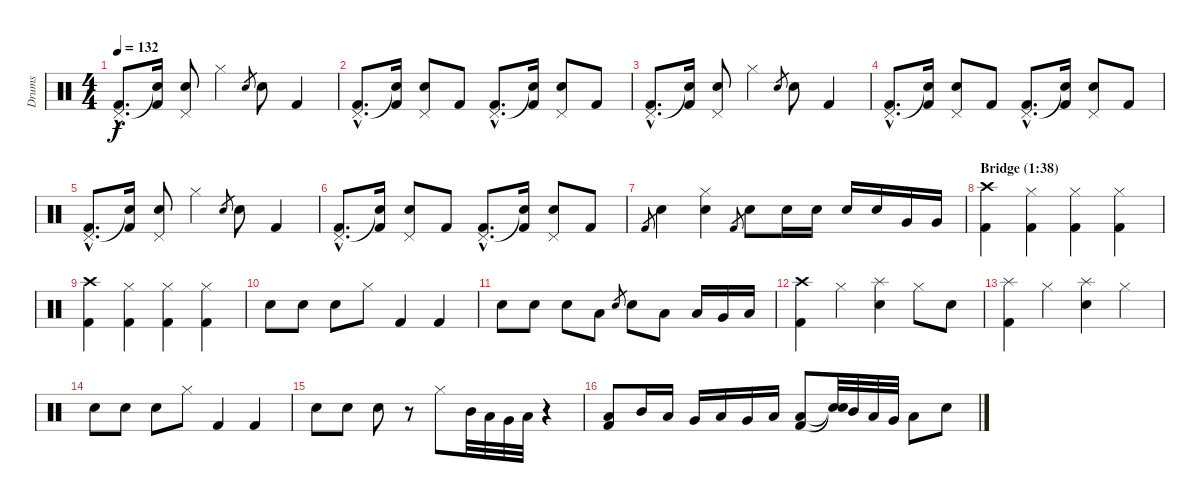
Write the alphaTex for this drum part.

\track ("Drums" "Drums") {instrument percussion}
\staff {score}
\articulation defaults
\ts (4 4)
\tempo 132
\clef neutral
\ks aminor
("Kick (hit) 2"{hac} "Pedal Hi-Hat (hit)"{hac}).8{d dy f} ("Kick (hit) 2" "Snare (hit)"{t}).16 ("Electric Snare (hit)" "Pedal Hi-Hat (hit)").8 "Hi-Hat (closed)".4 "Electric Snare (hit)".8{gr} "Electric Snare (hit)".8 "Kick (hit) 2".4 |
("Kick (hit) 2"{hac} "Pedal Hi-Hat (hit)"{hac}).8{d} ("Kick (hit) 2" "Snare (hit)"{t}).16 ("Electric Snare (hit)" "Pedal Hi-Hat (hit)").8 "Kick (hit) 2".8 ("Kick (hit) 2"{hac} "Pedal Hi-Hat (hit)"{hac}).8{d} ("Kick (hit) 2" "Snare (hit)"{t}).16 ("Electric Snare (hit)" "Pedal Hi-Hat (hit)").8 "Kick (hit) 2".8 |
("Kick (hit) 2"{hac} "Pedal Hi-Hat (hit)"{hac}).8{d} ("Kick (hit) 2" "Snare (hit)"{t}).16 ("Electric Snare (hit)" "Pedal Hi-Hat (hit)").8 "Hi-Hat (closed)".4 "Electric Snare (hit)".8{gr} "Electric Snare (hit)".8 "Kick (hit) 2".4 |
("Kick (hit) 2"{hac} "Pedal Hi-Hat (hit)"{hac}).8{d} ("Kick (hit) 2" "Snare (hit)"{t}).16 ("Electric Snare (hit)" "Pedal Hi-Hat (hit)").8 "Kick (hit) 2".8 ("Kick (hit) 2"{hac} "Pedal Hi-Hat (hit)"{hac}).8{d} ("Kick (hit) 2" "Snare (hit)"{t}).16 ("Electric Snare (hit)" "Pedal Hi-Hat (hit)").8 "Kick (hit) 2".8 |
("Kick (hit) 2"{hac} "Pedal Hi-Hat (hit)"{hac}).8{d} ("Kick (hit) 2" "Snare (hit)"{t}).16 ("Electric Snare (hit)" "Pedal Hi-Hat (hit)").8 "Hi-Hat (closed)".4 "Electric Snare (hit)".8{gr} "Electric Snare (hit)".8 "Kick (hit) 2".4 |
("Kick (hit) 2"{hac} "Pedal Hi-Hat (hit)"{hac}).8{d} ("Kick (hit) 2" "Snare (hit)"{t}).16 ("Electric Snare (hit)" "Pedal Hi-Hat (hit)").8 "Kick (hit) 2".8 ("Kick (hit) 2"{hac} "Pedal Hi-Hat (hit)"{hac}).8{d} ("Kick (hit) 2" "Snare (hit)"{t}).16 ("Electric Snare (hit)" "Pedal Hi-Hat (hit)").8 "Kick (hit) 2".8 |
"Kick (hit) 2".8{gr} "Electric Snare (hit)".4 ("Electric Snare (hit)" "Hi-Hat (closed)").4 "Kick (hit) 2".8{gr} "Electric Snare (hit)".8 "Electric Snare (hit)".16 "Electric Snare (hit)".16 "Electric Snare (hit)".16 "Electric Snare (hit)".16 "Very Low Tom (hit)".16 "Very Low Tom (hit)".16 |
\section ("" "Bridge (1:38)")
("Kick (hit) 2" "Crash high (hit)").4 ("Kick (hit) 2" "Hi-Hat (closed)").4 ("Kick (hit) 2" "Hi-Hat (closed)").4 ("Kick (hit) 2" "Hi-Hat (closed)").4 |
("Kick (hit) 2" "Crash high (hit)").4 ("Kick (hit) 2" "Hi-Hat (closed)").4 ("Kick (hit) 2" "Hi-Hat (closed)").4 ("Kick (hit) 2" "Hi-Hat (closed)").4 |
"Electric Snare (hit)".8 "Electric Snare (hit)".8 "Electric Snare (hit)".8 "Hi-Hat (closed)".8 "Kick (hit) 2".4 "Kick (hit) 2".4 |
"Electric Snare (hit)".8 "Electric Snare (hit)".8 "Electric Snare (hit)".8 "Low Tom (hit)".8 "Electric Snare (hit)".8{gr} "Electric Snare (hit)".8 "Low Floor Tom (hit)".8 "Low Tom (hit)".16 "Very Low Tom (hit)".16 "Low Floor Tom (hit)".16 |
("Kick (hit) 2" "Crash high (hit)").4 "Hi-Hat (closed)".4 ("Electric Snare (hit)" "Splash (hit)").4 "Hi-Hat (closed)".8 "Electric Snare (hit)".8 |
("Kick (hit) 2" "Splash (hit)").4 "Hi-Hat (closed)".4 ("Electric Snare (hit)" "Splash (hit)").4 "Hi-Hat (closed)".4 |
"Electric Snare (hit)".8 "Electric Snare (hit)".8 "Electric Snare (hit)".8 "Hi-Hat (closed)".8 "Kick (hit) 2".4 "Kick (hit) 2".4 |
"Electric Snare (hit)".8 "Electric Snare (hit)".8 "Electric Snare (hit)".8 r.8 "Hi-Hat (closed)".8 "Mid Tom (hit)".32 "Low Tom (hit)".32 "Very Low Tom (hit)".32 "Low Floor Tom (hit)".32 r.4 |
("Kick (hit) 2" "Low Floor Tom (hit)").8 "Mid Tom (hit)".16 "Low Tom (hit)".16 "Very Low Tom (hit)".16 "Low Floor Tom (hit)".16 "Very Low Tom (hit)".16 "Low Floor Tom (hit)".16 ("Kick (hit) 2" "Low Floor Tom (hit)").8 ("Snare (hit)"{t} "Snare (hit)"{t}).32 "Mid Tom (hit)".32 "Low Tom (hit)".32 "Very Low Tom (hit)".32 "Low Floor Tom (hit)".8 "Electric Snare (hit)".8
